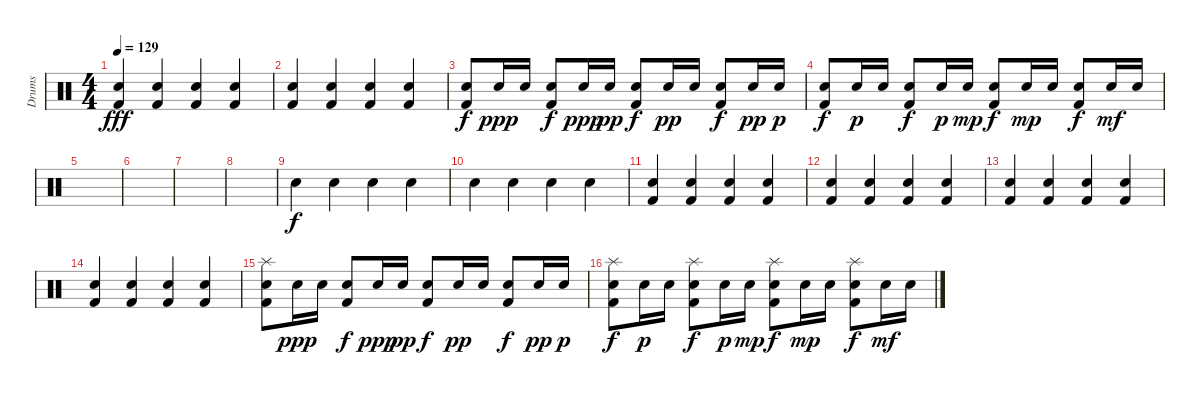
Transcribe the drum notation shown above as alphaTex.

\track ("Drums" "Drums") {instrument percussion}
\staff {score}
\articulation defaults
\ts (4 4)
\tempo 129
\clef neutral
\ks c
("Hand Clap (hit)" "Kick (hit) 2").4{dy fff} ("Hand Clap (hit)" "Kick (hit) 2").4 ("Hand Clap (hit)" "Kick (hit) 2").4 ("Hand Clap (hit)" "Kick (hit) 2").4 |
("Hand Clap (hit)" "Kick (hit) 2").4 ("Hand Clap (hit)" "Kick (hit) 2").4 ("Hand Clap (hit)" "Kick (hit) 2").4 ("Hand Clap (hit)" "Kick (hit) 2").4 |
("Hand Clap (hit)" "Kick (hit) 2").8{dy f} "Hand Clap (hit)".16{dy ppp} "Hand Clap (hit)".16 ("Hand Clap (hit)" "Kick (hit) 2").8{dy f} "Hand Clap (hit)".16{dy ppp} "Hand Clap (hit)".16{dy pp} ("Hand Clap (hit)" "Kick (hit) 2").8{dy f} "Hand Clap (hit)".16{dy pp} "Hand Clap (hit)".16 ("Hand Clap (hit)" "Kick (hit) 2").8{dy f} "Hand Clap (hit)".16{dy pp} "Hand Clap (hit)".16{dy p} |
("Hand Clap (hit)" "Kick (hit) 2").8{dy f} "Hand Clap (hit)".16{dy p} "Hand Clap (hit)".16 ("Hand Clap (hit)" "Kick (hit) 2").8{dy f} "Hand Clap (hit)".16{dy p} "Hand Clap (hit)".16{dy mp} ("Hand Clap (hit)" "Kick (hit) 2").8{dy f} "Hand Clap (hit)".16{dy mp} "Hand Clap (hit)".16 ("Hand Clap (hit)" "Kick (hit) 2").8{dy f} "Hand Clap (hit)".16{dy mf} "Hand Clap (hit)".16 |
|
|
|
|
"Hand Clap (hit)".4{dy f} "Hand Clap (hit)".4 "Hand Clap (hit)".4 "Hand Clap (hit)".4 |
"Hand Clap (hit)".4 "Hand Clap (hit)".4 "Hand Clap (hit)".4 "Hand Clap (hit)".4 |
("Hand Clap (hit)" "Kick (hit) 2").4 ("Hand Clap (hit)" "Kick (hit) 2").4 ("Hand Clap (hit)" "Kick (hit) 2").4 ("Hand Clap (hit)" "Kick (hit) 2").4 |
("Hand Clap (hit)" "Kick (hit) 2").4 ("Hand Clap (hit)" "Kick (hit) 2").4 ("Hand Clap (hit)" "Kick (hit) 2").4 ("Hand Clap (hit)" "Kick (hit) 2").4 |
("Hand Clap (hit)" "Kick (hit) 2").4 ("Hand Clap (hit)" "Kick (hit) 2").4 ("Hand Clap (hit)" "Kick (hit) 2").4 ("Hand Clap (hit)" "Kick (hit) 2").4 |
("Hand Clap (hit)" "Kick (hit) 2").4 ("Hand Clap (hit)" "Kick (hit) 2").4 ("Hand Clap (hit)" "Kick (hit) 2").4 ("Hand Clap (hit)" "Kick (hit) 2").4 |
("Splash (hit)" "Hand Clap (hit)" "Kick (hit) 2").8 "Hand Clap (hit)".16{dy ppp} "Hand Clap (hit)".16 ("Hand Clap (hit)" "Kick (hit) 2").8{dy f} "Hand Clap (hit)".16{dy ppp} "Hand Clap (hit)".16{dy pp} ("Hand Clap (hit)" "Kick (hit) 2").8{dy f} "Hand Clap (hit)".16{dy pp} "Hand Clap (hit)".16 ("Hand Clap (hit)" "Kick (hit) 2").8{dy f} "Hand Clap (hit)".16{dy pp} "Hand Clap (hit)".16{dy p} |
("Splash (hit)" "Hand Clap (hit)" "Kick (hit) 2").8{dy f} "Hand Clap (hit)".16{dy p} "Hand Clap (hit)".16 ("Splash (hit)" "Hand Clap (hit)" "Kick (hit) 2").8{dy f} "Hand Clap (hit)".16{dy p} "Hand Clap (hit)".16{dy mp} ("Splash (hit)" "Hand Clap (hit)" "Kick (hit) 2").8{dy f} "Hand Clap (hit)".16{dy mp} "Hand Clap (hit)".16 ("Splash (hit)" "Hand Clap (hit)" "Kick (hit) 2").8{dy f} "Hand Clap (hit)".16{dy mf} "Hand Clap (hit)".16
